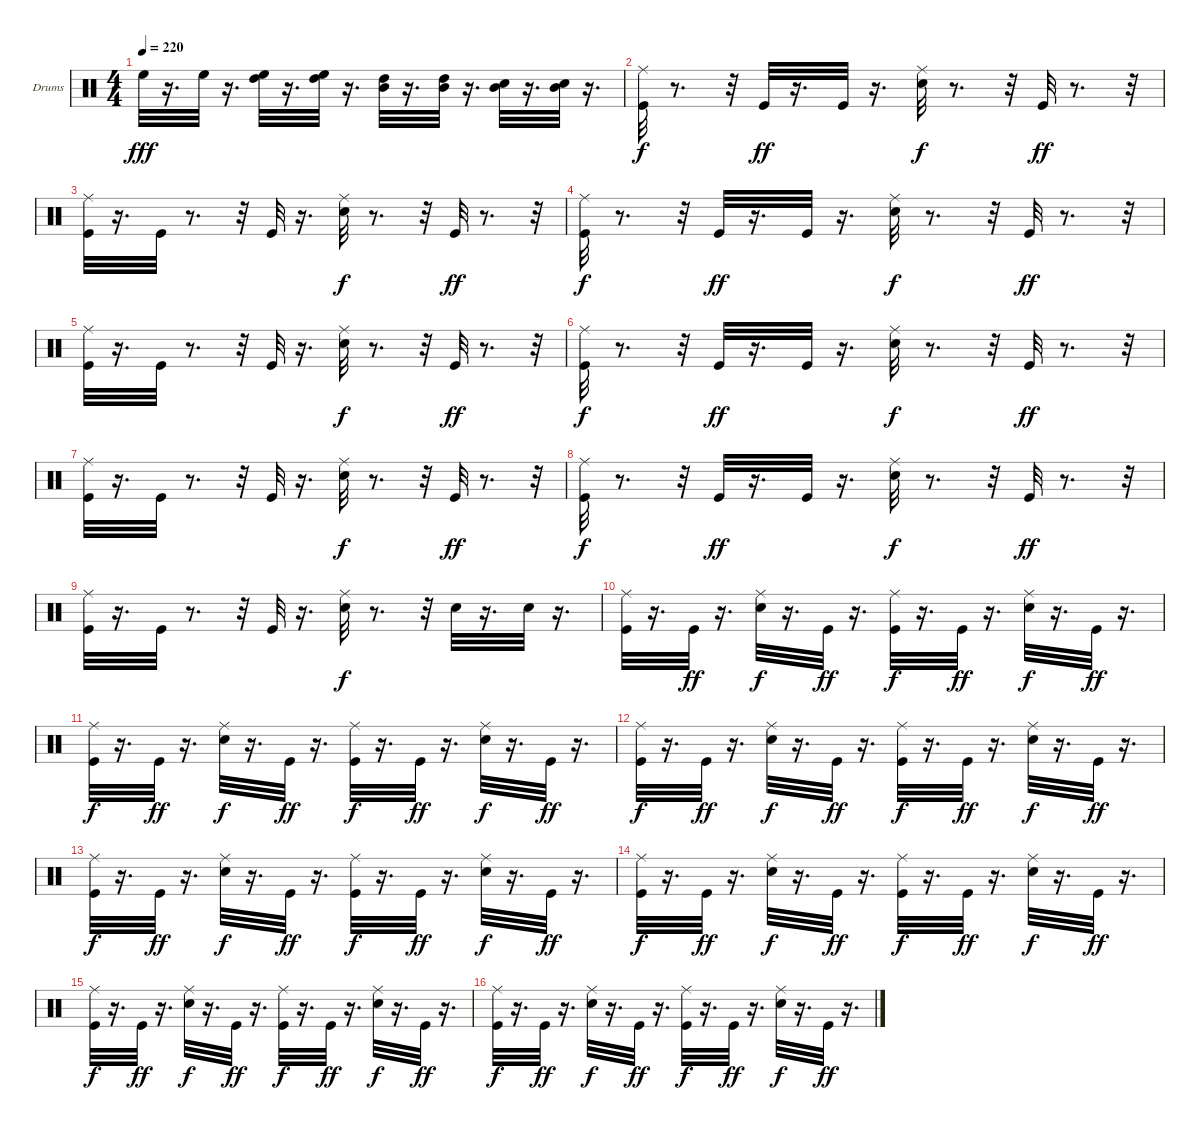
\defaultSystemsLayout 4
\bracketExtendMode groupsimilarinstruments
\firstSystemTrackNameOrientation horizontal
\otherSystemsTrackNameOrientation horizontal
\track ("Дмитрий Кривенков" "Drums") {instrument percussion}
\staff {score}
\articulation defaults
\ts (4 4)
\tempo 220
\clef neutral
\ks c "High Floor Tom (hit)".32{dy fff}
r.16{d} "High Floor Tom (hit)".32 r.16{d} ("High Tom (hit)" "High Floor Tom (hit)").32 r.16{d} ("High Floor Tom (hit)" "High Tom (hit)").32 r.16{d} ("Mid Tom (hit)" "High Tom (hit)").32 r.16{d} ("Mid Tom (hit)" "High Tom (hit)").32 r.16{d} ("Mid Tom (hit)" "Snare (hit) 2").32 r.16{d} ("Mid Tom (hit)" "Snare (hit) 2").32 r.16{d} |
("Ride (middle)" "Kick (hit)").32{dy f} r.8{d} r.32 "Kick (hit)".32{dy ff} r.16{d} "Kick (hit)".32 r.16{d} ("Ride (middle)" "Snare (hit) 2").32{dy f} r.8{d} r.32 "Kick (hit)".32{dy ff} r.8{d} r.32 |
("Kick (hit)" "Ride (middle)").32 r.16{d} "Kick (hit)".32 r.8{d} r.32 "Kick (hit)".32 r.16{d} ("Ride (middle)" "Snare (hit) 2").32{dy f} r.8{d} r.32 "Kick (hit)".32{dy ff} r.8{d} r.32 |
("Ride (middle)" "Kick (hit)").32{dy f} r.8{d} r.32 "Kick (hit)".32{dy ff} r.16{d} "Kick (hit)".32 r.16{d} ("Ride (middle)" "Snare (hit) 2").32{dy f} r.8{d} r.32 "Kick (hit)".32{dy ff} r.8{d} r.32 |
("Kick (hit)" "Ride (middle)").32 r.16{d} "Kick (hit)".32 r.8{d} r.32 "Kick (hit)".32 r.16{d} ("Ride (middle)" "Snare (hit) 2").32{dy f} r.8{d} r.32 "Kick (hit)".32{dy ff} r.8{d} r.32 |
("Ride (middle)" "Kick (hit)").32{dy f} r.8{d} r.32 "Kick (hit)".32{dy ff} r.16{d} "Kick (hit)".32 r.16{d} ("Ride (middle)" "Snare (hit) 2").32{dy f} r.8{d} r.32 "Kick (hit)".32{dy ff} r.8{d} r.32 |
("Kick (hit)" "Ride (middle)").32 r.16{d} "Kick (hit)".32 r.8{d} r.32 "Kick (hit)".32 r.16{d} ("Ride (middle)" "Snare (hit) 2").32{dy f} r.8{d} r.32 "Kick (hit)".32{dy ff} r.8{d} r.32 |
("Ride (middle)" "Kick (hit)").32{dy f} r.8{d} r.32 "Kick (hit)".32{dy ff} r.16{d} "Kick (hit)".32 r.16{d} ("Ride (middle)" "Snare (hit) 2").32{dy f} r.8{d} r.32 "Kick (hit)".32{dy ff} r.8{d} r.32 |
("Kick (hit)" "Ride (middle)").32 r.16{d} "Kick (hit)".32 r.8{d} r.32 "Kick (hit)".32 r.16{d} ("Ride (middle)" "Snare (hit) 2").32{dy f} r.8{d} r.32 "Snare (hit) 2".32 r.16{d} "Snare (hit) 2".32 r.16{d} |
("Ride (middle)" "Kick (hit)").32 r.16{d} "Kick (hit)".32{dy ff} r.16{d} ("Ride (middle)" "Snare (hit) 2").32{dy f} r.16{d} "Kick (hit)".32{dy ff} r.16{d} ("Ride (middle)" "Kick (hit)").32{dy f} r.16{d} "Kick (hit)".32{dy ff} r.16{d} ("Ride (middle)" "Snare (hit) 2").32{dy f} r.16{d} "Kick (hit)".32{dy ff} r.16{d} |
("Ride (middle)" "Kick (hit)").32{dy f} r.16{d} "Kick (hit)".32{dy ff} r.16{d} ("Ride (middle)" "Snare (hit) 2").32{dy f} r.16{d} "Kick (hit)".32{dy ff} r.16{d} ("Ride (middle)" "Kick (hit)").32{dy f} r.16{d} "Kick (hit)".32{dy ff} r.16{d} ("Ride (middle)" "Snare (hit) 2").32{dy f} r.16{d} "Kick (hit)".32{dy ff} r.16{d} |
("Ride (middle)" "Kick (hit)").32{dy f} r.16{d} "Kick (hit)".32{dy ff} r.16{d} ("Ride (middle)" "Snare (hit) 2").32{dy f} r.16{d} "Kick (hit)".32{dy ff} r.16{d} ("Ride (middle)" "Kick (hit)").32{dy f} r.16{d} "Kick (hit)".32{dy ff} r.16{d} ("Ride (middle)" "Snare (hit) 2").32{dy f} r.16{d} "Kick (hit)".32{dy ff} r.16{d} |
("Ride (middle)" "Kick (hit)").32{dy f} r.16{d} "Kick (hit)".32{dy ff} r.16{d} ("Ride (middle)" "Snare (hit) 2").32{dy f} r.16{d} "Kick (hit)".32{dy ff} r.16{d} ("Ride (middle)" "Kick (hit)").32{dy f} r.16{d} "Kick (hit)".32{dy ff} r.16{d} ("Ride (middle)" "Snare (hit) 2").32{dy f} r.16{d} "Kick (hit)".32{dy ff} r.16{d} |
("Ride (middle)" "Kick (hit)").32{dy f} r.16{d} "Kick (hit)".32{dy ff} r.16{d} ("Ride (middle)" "Snare (hit) 2").32{dy f} r.16{d} "Kick (hit)".32{dy ff} r.16{d} ("Ride (middle)" "Kick (hit)").32{dy f} r.16{d} "Kick (hit)".32{dy ff} r.16{d} ("Ride (middle)" "Snare (hit) 2").32{dy f} r.16{d} "Kick (hit)".32{dy ff} r.16{d} |
("Ride (middle)" "Kick (hit)").32{dy f} r.16{d} "Kick (hit)".32{dy ff} r.16{d} ("Ride (middle)" "Snare (hit) 2").32{dy f} r.16{d} "Kick (hit)".32{dy ff} r.16{d} ("Ride (middle)" "Kick (hit)").32{dy f} r.16{d} "Kick (hit)".32{dy ff} r.16{d} ("Ride (middle)" "Snare (hit) 2").32{dy f} r.16{d} "Kick (hit)".32{dy ff} r.16{d} |
("Ride (middle)" "Kick (hit)").32{dy f} r.16{d} "Kick (hit)".32{dy ff} r.16{d} ("Ride (middle)" "Snare (hit) 2").32{dy f} r.16{d} "Kick (hit)".32{dy ff} r.16{d} ("Ride (middle)" "Kick (hit)").32{dy f} r.16{d} "Kick (hit)".32{dy ff} r.16{d} ("Ride (middle)" "Snare (hit) 2").32{dy f} r.16{d} "Kick (hit)".32{dy ff} r.16{d}
